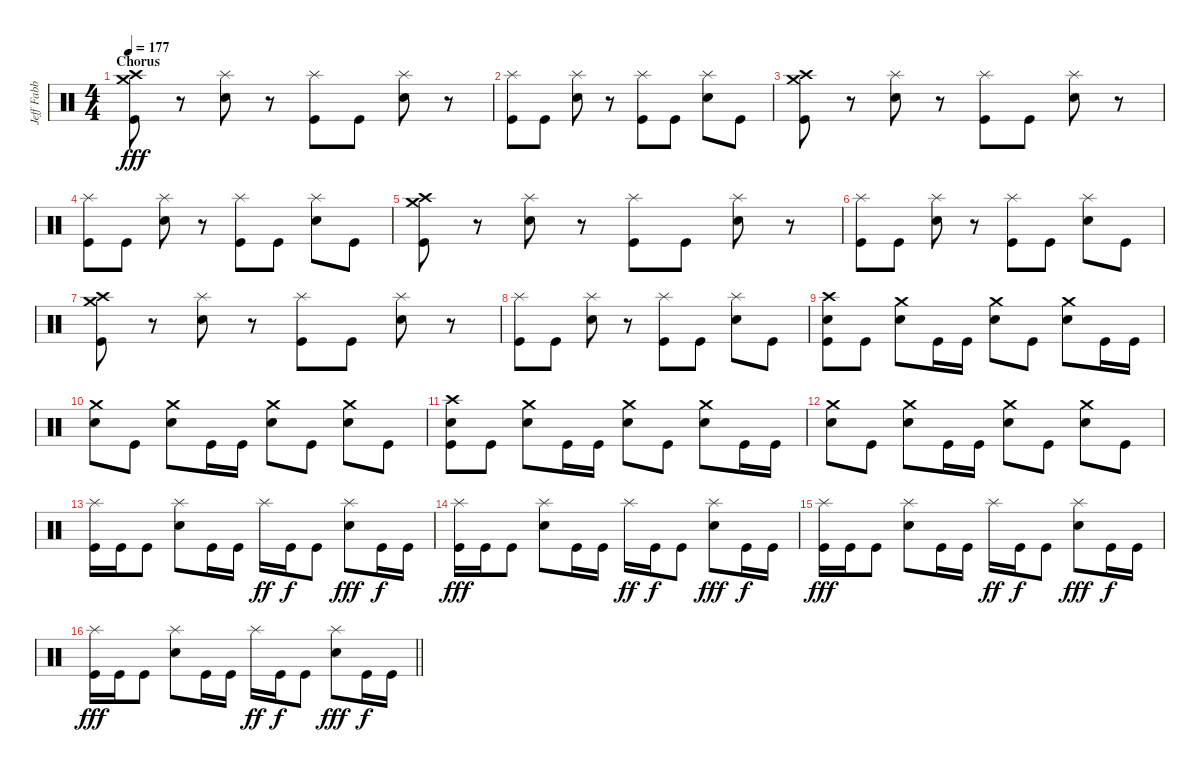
\track ("Jeff Fabb (Drums)" "Jeff Fabb ") {instrument percussion}
\staff {score}
\articulation defaults
\ts (4 4)
\section ("" "Chorus")
\tempo 177
\clef neutral
\ks c
("Crash high (hit)" "Crash medium (hit)" "Kick (hit)").8{dy fff} r.8 ("Splash (hit)" "Electric Snare (hit)").8 r.8 ("Splash (hit)" "Kick (hit)").8 "Kick (hit)".8 ("Splash (hit)" "Electric Snare (hit)").8 r.8 |
("Splash (hit)" "Kick (hit)").8 "Kick (hit)".8 ("Splash (hit)" "Electric Snare (hit)").8 r.8 ("Splash (hit)" "Kick (hit)").8 "Kick (hit)".8 ("Splash (hit)" "Electric Snare (hit)").8 "Kick (hit)".8 |
("Crash high (hit)" "Crash medium (hit)" "Kick (hit)").8 r.8 ("Splash (hit)" "Electric Snare (hit)").8 r.8 ("Splash (hit)" "Kick (hit)").8 "Kick (hit)".8 ("Splash (hit)" "Electric Snare (hit)").8 r.8 |
("Splash (hit)" "Kick (hit)").8 "Kick (hit)".8 ("Splash (hit)" "Electric Snare (hit)").8 r.8 ("Splash (hit)" "Kick (hit)").8 "Kick (hit)".8 ("Splash (hit)" "Electric Snare (hit)").8 "Kick (hit)".8 |
("Crash high (hit)" "Crash medium (hit)" "Kick (hit)").8 r.8 ("Splash (hit)" "Electric Snare (hit)").8 r.8 ("Splash (hit)" "Kick (hit)").8 "Kick (hit)".8 ("Splash (hit)" "Electric Snare (hit)").8 r.8 |
("Splash (hit)" "Kick (hit)").8 "Kick (hit)".8 ("Splash (hit)" "Electric Snare (hit)").8 r.8 ("Splash (hit)" "Kick (hit)").8 "Kick (hit)".8 ("Splash (hit)" "Electric Snare (hit)").8 "Kick (hit)".8 |
("Crash high (hit)" "Crash medium (hit)" "Kick (hit)").8 r.8 ("Splash (hit)" "Electric Snare (hit)").8 r.8 ("Splash (hit)" "Kick (hit)").8 "Kick (hit)".8 ("Splash (hit)" "Electric Snare (hit)").8 r.8 |
("Splash (hit)" "Kick (hit)").8 "Kick (hit)".8 ("Splash (hit)" "Electric Snare (hit)").8 r.8 ("Splash (hit)" "Kick (hit)").8 "Kick (hit)".8 ("Splash (hit)" "Electric Snare (hit)").8 "Kick (hit)".8 |
("Crash high (hit)" "Electric Snare (hit)" "Kick (hit)").8 "Kick (hit)".8 ("Crash medium (hit)" "Electric Snare (hit)").8 "Kick (hit)".16 "Kick (hit)".16 ("Crash medium (hit)" "Electric Snare (hit)").8 "Kick (hit)".8 ("Crash medium (hit)" "Electric Snare (hit)").8 "Kick (hit)".16 "Kick (hit)".16 |
("Crash medium (hit)" "Electric Snare (hit)").8 "Kick (hit)".8 ("Crash medium (hit)" "Electric Snare (hit)").8 "Kick (hit)".16 "Kick (hit)".16 ("Crash medium (hit)" "Electric Snare (hit)").8 "Kick (hit)".8 ("Crash medium (hit)" "Electric Snare (hit)").8 "Kick (hit)".8 |
("Crash high (hit)" "Electric Snare (hit)" "Kick (hit)").8 "Kick (hit)".8 ("Crash medium (hit)" "Electric Snare (hit)").8 "Kick (hit)".16 "Kick (hit)".16 ("Crash medium (hit)" "Electric Snare (hit)").8 "Kick (hit)".8 ("Crash medium (hit)" "Electric Snare (hit)").8 "Kick (hit)".16 "Kick (hit)".16 |
("Crash medium (hit)" "Electric Snare (hit)").8 "Kick (hit)".8 ("Crash medium (hit)" "Electric Snare (hit)").8 "Kick (hit)".16 "Kick (hit)".16 ("Crash medium (hit)" "Electric Snare (hit)").8 "Kick (hit)".8 ("Crash medium (hit)" "Electric Snare (hit)").8 "Kick (hit)".8 |
("Splash (hit)" "Kick (hit)").16 "Kick (hit)".16 "Kick (hit)".8 ("Splash (hit)" "Electric Snare (hit)").8 "Kick (hit)".16 "Kick (hit)".16 "Splash (hit)".16{dy ff} "Kick (hit)".16{dy f} "Kick (hit)".8 ("Splash (hit)" "Electric Snare (hit)").8{dy fff} "Kick (hit)".16{dy f} "Kick (hit)".16 |
("Splash (hit)" "Kick (hit)").16{dy fff} "Kick (hit)".16 "Kick (hit)".8 ("Splash (hit)" "Electric Snare (hit)").8 "Kick (hit)".16 "Kick (hit)".16 "Splash (hit)".16{dy ff} "Kick (hit)".16{dy f} "Kick (hit)".8 ("Splash (hit)" "Electric Snare (hit)").8{dy fff} "Kick (hit)".16{dy f} "Kick (hit)".16 |
("Splash (hit)" "Kick (hit)").16{dy fff} "Kick (hit)".16 "Kick (hit)".8 ("Splash (hit)" "Electric Snare (hit)").8 "Kick (hit)".16 "Kick (hit)".16 "Splash (hit)".16{dy ff} "Kick (hit)".16{dy f} "Kick (hit)".8 ("Splash (hit)" "Electric Snare (hit)").8{dy fff} "Kick (hit)".16{dy f} "Kick (hit)".16 |
\barLineRight lightlight
("Splash (hit)" "Kick (hit)").16{dy fff} "Kick (hit)".16 "Kick (hit)".8 ("Splash (hit)" "Electric Snare (hit)").8 "Kick (hit)".16 "Kick (hit)".16 "Splash (hit)".16{dy ff} "Kick (hit)".16{dy f} "Kick (hit)".8 ("Splash (hit)" "Electric Snare (hit)").8{dy fff} "Kick (hit)".16{dy f} "Kick (hit)".16
